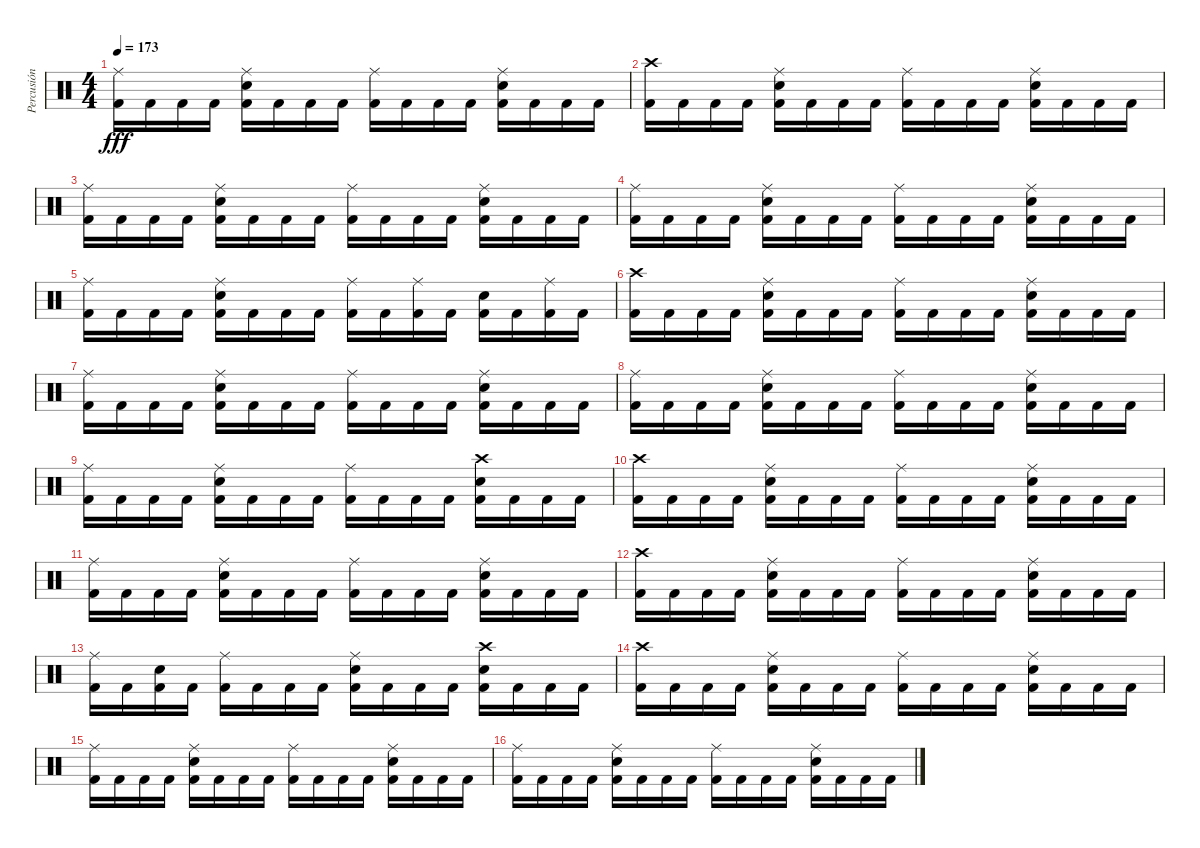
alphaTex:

\track ("Percusión" "Percusión") {instrument percussion}
\staff {score}
\articulation defaults
\ts (4 4)
\tempo 173
\clef neutral
\ks c
("Ride (middle)" "Kick (hit) 2").16{dy fff} "Kick (hit) 2".16 "Kick (hit) 2".16 "Kick (hit) 2".16 ("Ride (middle)" "Electric Snare (hit)" "Kick (hit) 2").16 "Kick (hit) 2".16 "Kick (hit) 2".16 "Kick (hit) 2".16 ("Ride (middle)" "Kick (hit) 2").16 "Kick (hit) 2".16 "Kick (hit) 2".16 "Kick (hit) 2".16 ("Ride (middle)" "Electric Snare (hit)" "Kick (hit) 2").16 "Kick (hit) 2".16 "Kick (hit) 2".16 "Kick (hit) 2".16 |
("Crash high (hit)" "Kick (hit) 2").16 "Kick (hit) 2".16 "Kick (hit) 2".16 "Kick (hit) 2".16 ("Ride (middle)" "Electric Snare (hit)" "Kick (hit) 2").16 "Kick (hit) 2".16 "Kick (hit) 2".16 "Kick (hit) 2".16 ("Ride (middle)" "Kick (hit) 2").16 "Kick (hit) 2".16 "Kick (hit) 2".16 "Kick (hit) 2".16 ("Ride (middle)" "Electric Snare (hit)" "Kick (hit) 2").16 "Kick (hit) 2".16 "Kick (hit) 2".16 "Kick (hit) 2".16 |
("Ride (middle)" "Kick (hit) 2").16 "Kick (hit) 2".16 "Kick (hit) 2".16 "Kick (hit) 2".16 ("Ride (middle)" "Electric Snare (hit)" "Kick (hit) 2").16 "Kick (hit) 2".16 "Kick (hit) 2".16 "Kick (hit) 2".16 ("Ride (middle)" "Kick (hit) 2").16 "Kick (hit) 2".16 "Kick (hit) 2".16 "Kick (hit) 2".16 ("Ride (middle)" "Electric Snare (hit)" "Kick (hit) 2").16 "Kick (hit) 2".16 "Kick (hit) 2".16 "Kick (hit) 2".16 |
("Ride (middle)" "Kick (hit) 2").16 "Kick (hit) 2".16 "Kick (hit) 2".16 "Kick (hit) 2".16 ("Ride (middle)" "Electric Snare (hit)" "Kick (hit) 2").16 "Kick (hit) 2".16 "Kick (hit) 2".16 "Kick (hit) 2".16 ("Ride (middle)" "Kick (hit) 2").16 "Kick (hit) 2".16 "Kick (hit) 2".16 "Kick (hit) 2".16 ("Ride (middle)" "Electric Snare (hit)" "Kick (hit) 2").16 "Kick (hit) 2".16 "Kick (hit) 2".16 "Kick (hit) 2".16 |
("Ride (middle)" "Kick (hit) 2").16 "Kick (hit) 2".16 "Kick (hit) 2".16 "Kick (hit) 2".16 ("Ride (middle)" "Electric Snare (hit)" "Kick (hit) 2").16 "Kick (hit) 2".16 "Kick (hit) 2".16 "Kick (hit) 2".16 ("Ride (middle)" "Kick (hit) 2").16 "Kick (hit) 2".16 ("Ride (middle)" "Kick (hit) 2").16 "Kick (hit) 2".16 ("Electric Snare (hit)" "Kick (hit) 2").16 "Kick (hit) 2".16 ("Ride (middle)" "Kick (hit) 2").16 "Kick (hit) 2".16 |
("Crash high (hit)" "Kick (hit) 2").16 "Kick (hit) 2".16 "Kick (hit) 2".16 "Kick (hit) 2".16 ("Ride (middle)" "Electric Snare (hit)" "Kick (hit) 2").16 "Kick (hit) 2".16 "Kick (hit) 2".16 "Kick (hit) 2".16 ("Ride (middle)" "Kick (hit) 2").16 "Kick (hit) 2".16 "Kick (hit) 2".16 "Kick (hit) 2".16 ("Ride (middle)" "Electric Snare (hit)" "Kick (hit) 2").16 "Kick (hit) 2".16 "Kick (hit) 2".16 "Kick (hit) 2".16 |
("Ride (middle)" "Kick (hit) 2").16 "Kick (hit) 2".16 "Kick (hit) 2".16 "Kick (hit) 2".16 ("Ride (middle)" "Electric Snare (hit)" "Kick (hit) 2").16 "Kick (hit) 2".16 "Kick (hit) 2".16 "Kick (hit) 2".16 ("Ride (middle)" "Kick (hit) 2").16 "Kick (hit) 2".16 "Kick (hit) 2".16 "Kick (hit) 2".16 ("Ride (middle)" "Electric Snare (hit)" "Kick (hit) 2").16 "Kick (hit) 2".16 "Kick (hit) 2".16 "Kick (hit) 2".16 |
("Ride (middle)" "Kick (hit) 2").16 "Kick (hit) 2".16 "Kick (hit) 2".16 "Kick (hit) 2".16 ("Ride (middle)" "Electric Snare (hit)" "Kick (hit) 2").16 "Kick (hit) 2".16 "Kick (hit) 2".16 "Kick (hit) 2".16 ("Ride (middle)" "Kick (hit) 2").16 "Kick (hit) 2".16 "Kick (hit) 2".16 "Kick (hit) 2".16 ("Ride (middle)" "Electric Snare (hit)" "Kick (hit) 2").16 "Kick (hit) 2".16 "Kick (hit) 2".16 "Kick (hit) 2".16 |
("Ride (middle)" "Kick (hit) 2").16 "Kick (hit) 2".16 "Kick (hit) 2".16 "Kick (hit) 2".16 ("Ride (middle)" "Electric Snare (hit)" "Kick (hit) 2").16 "Kick (hit) 2".16 "Kick (hit) 2".16 "Kick (hit) 2".16 ("Ride (middle)" "Kick (hit) 2").16 "Kick (hit) 2".16 "Kick (hit) 2".16 "Kick (hit) 2".16 ("Crash high (hit)" "Electric Snare (hit)" "Kick (hit) 2").16 "Kick (hit) 2".16 "Kick (hit) 2".16 "Kick (hit) 2".16 |
("Crash high (hit)" "Kick (hit) 2").16 "Kick (hit) 2".16 "Kick (hit) 2".16 "Kick (hit) 2".16 ("Ride (middle)" "Electric Snare (hit)" "Kick (hit) 2").16 "Kick (hit) 2".16 "Kick (hit) 2".16 "Kick (hit) 2".16 ("Ride (middle)" "Kick (hit) 2").16 "Kick (hit) 2".16 "Kick (hit) 2".16 "Kick (hit) 2".16 ("Ride (middle)" "Electric Snare (hit)" "Kick (hit) 2").16 "Kick (hit) 2".16 "Kick (hit) 2".16 "Kick (hit) 2".16 |
("Ride (middle)" "Kick (hit) 2").16 "Kick (hit) 2".16 "Kick (hit) 2".16 "Kick (hit) 2".16 ("Ride (middle)" "Electric Snare (hit)" "Kick (hit) 2").16 "Kick (hit) 2".16 "Kick (hit) 2".16 "Kick (hit) 2".16 ("Ride (middle)" "Kick (hit) 2").16 "Kick (hit) 2".16 "Kick (hit) 2".16 "Kick (hit) 2".16 ("Ride (middle)" "Electric Snare (hit)" "Kick (hit) 2").16 "Kick (hit) 2".16 "Kick (hit) 2".16 "Kick (hit) 2".16 |
("Crash high (hit)" "Kick (hit) 2").16 "Kick (hit) 2".16 "Kick (hit) 2".16 "Kick (hit) 2".16 ("Ride (middle)" "Electric Snare (hit)" "Kick (hit) 2").16 "Kick (hit) 2".16 "Kick (hit) 2".16 "Kick (hit) 2".16 ("Ride (middle)" "Kick (hit) 2").16 "Kick (hit) 2".16 "Kick (hit) 2".16 "Kick (hit) 2".16 ("Ride (middle)" "Electric Snare (hit)" "Kick (hit) 2").16 "Kick (hit) 2".16 "Kick (hit) 2".16 "Kick (hit) 2".16 |
("Ride (middle)" "Kick (hit) 2").16 "Kick (hit) 2".16 ("Electric Snare (hit)" "Kick (hit) 2").16 "Kick (hit) 2".16 ("Ride (middle)" "Kick (hit) 2").16 "Kick (hit) 2".16 "Kick (hit) 2".16 "Kick (hit) 2".16 ("Ride (middle)" "Electric Snare (hit)" "Kick (hit) 2").16 "Kick (hit) 2".16 "Kick (hit) 2".16 "Kick (hit) 2".16 ("Crash high (hit)" "Electric Snare (hit)" "Kick (hit) 2").16 "Kick (hit) 2".16 "Kick (hit) 2".16 "Kick (hit) 2".16 |
("Crash high (hit)" "Kick (hit) 2").16 "Kick (hit) 2".16 "Kick (hit) 2".16 "Kick (hit) 2".16 ("Ride (middle)" "Electric Snare (hit)" "Kick (hit) 2").16 "Kick (hit) 2".16 "Kick (hit) 2".16 "Kick (hit) 2".16 ("Ride (middle)" "Kick (hit) 2").16 "Kick (hit) 2".16 "Kick (hit) 2".16 "Kick (hit) 2".16 ("Ride (middle)" "Electric Snare (hit)" "Kick (hit) 2").16 "Kick (hit) 2".16 "Kick (hit) 2".16 "Kick (hit) 2".16 |
("Ride (middle)" "Kick (hit) 2").16 "Kick (hit) 2".16 "Kick (hit) 2".16 "Kick (hit) 2".16 ("Ride (middle)" "Electric Snare (hit)" "Kick (hit) 2").16 "Kick (hit) 2".16 "Kick (hit) 2".16 "Kick (hit) 2".16 ("Ride (middle)" "Kick (hit) 2").16 "Kick (hit) 2".16 "Kick (hit) 2".16 "Kick (hit) 2".16 ("Ride (middle)" "Electric Snare (hit)" "Kick (hit) 2").16 "Kick (hit) 2".16 "Kick (hit) 2".16 "Kick (hit) 2".16 |
("Ride (middle)" "Kick (hit) 2").16 "Kick (hit) 2".16 "Kick (hit) 2".16 "Kick (hit) 2".16 ("Ride (middle)" "Electric Snare (hit)" "Kick (hit) 2").16 "Kick (hit) 2".16 "Kick (hit) 2".16 "Kick (hit) 2".16 ("Ride (middle)" "Kick (hit) 2").16 "Kick (hit) 2".16 "Kick (hit) 2".16 "Kick (hit) 2".16 ("Ride (middle)" "Electric Snare (hit)" "Kick (hit) 2").16 "Kick (hit) 2".16 "Kick (hit) 2".16 "Kick (hit) 2".16
